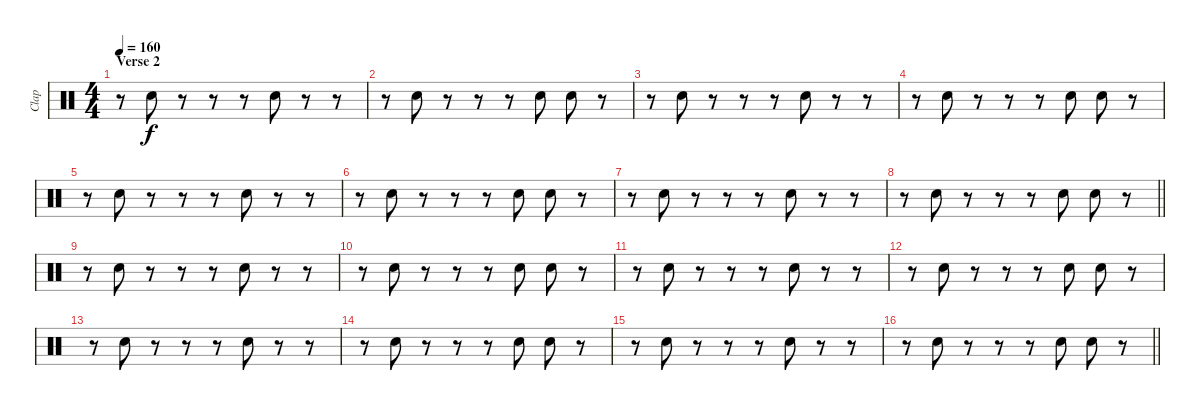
\track ("Clap" "Clap") {instrument percussion}
\staff {score}
\articulation defaults
\ts (4 4)
\section ("" "Verse 2")
\tempo 160
\clef neutral
\ks c
r.8{dy f} "Hand Clap (hit)".8 r.8 r.8 r.8 "Hand Clap (hit)".8 r.8 r.8 |
r.8 "Hand Clap (hit)".8 r.8 r.8 r.8 "Hand Clap (hit)".8 "Hand Clap (hit)".8 r.8 |
r.8 "Hand Clap (hit)".8 r.8 r.8 r.8 "Hand Clap (hit)".8 r.8 r.8 |
r.8 "Hand Clap (hit)".8 r.8 r.8 r.8 "Hand Clap (hit)".8 "Hand Clap (hit)".8 r.8 |
r.8 "Hand Clap (hit)".8 r.8 r.8 r.8 "Hand Clap (hit)".8 r.8 r.8 |
r.8 "Hand Clap (hit)".8 r.8 r.8 r.8 "Hand Clap (hit)".8 "Hand Clap (hit)".8 r.8 |
r.8 "Hand Clap (hit)".8 r.8 r.8 r.8 "Hand Clap (hit)".8 r.8 r.8 |
\barLineRight lightlight
r.8 "Hand Clap (hit)".8 r.8 r.8 r.8 "Hand Clap (hit)".8 "Hand Clap (hit)".8 r.8 |
r.8 "Hand Clap (hit)".8 r.8 r.8 r.8 "Hand Clap (hit)".8 r.8 r.8 |
r.8 "Hand Clap (hit)".8 r.8 r.8 r.8 "Hand Clap (hit)".8 "Hand Clap (hit)".8 r.8 |
r.8 "Hand Clap (hit)".8 r.8 r.8 r.8 "Hand Clap (hit)".8 r.8 r.8 |
r.8 "Hand Clap (hit)".8 r.8 r.8 r.8 "Hand Clap (hit)".8 "Hand Clap (hit)".8 r.8 |
r.8 "Hand Clap (hit)".8 r.8 r.8 r.8 "Hand Clap (hit)".8 r.8 r.8 |
r.8 "Hand Clap (hit)".8 r.8 r.8 r.8 "Hand Clap (hit)".8 "Hand Clap (hit)".8 r.8 |
r.8 "Hand Clap (hit)".8 r.8 r.8 r.8 "Hand Clap (hit)".8 r.8 r.8 |
\barLineRight lightlight
r.8 "Hand Clap (hit)".8 r.8 r.8 r.8 "Hand Clap (hit)".8 "Hand Clap (hit)".8 r.8
